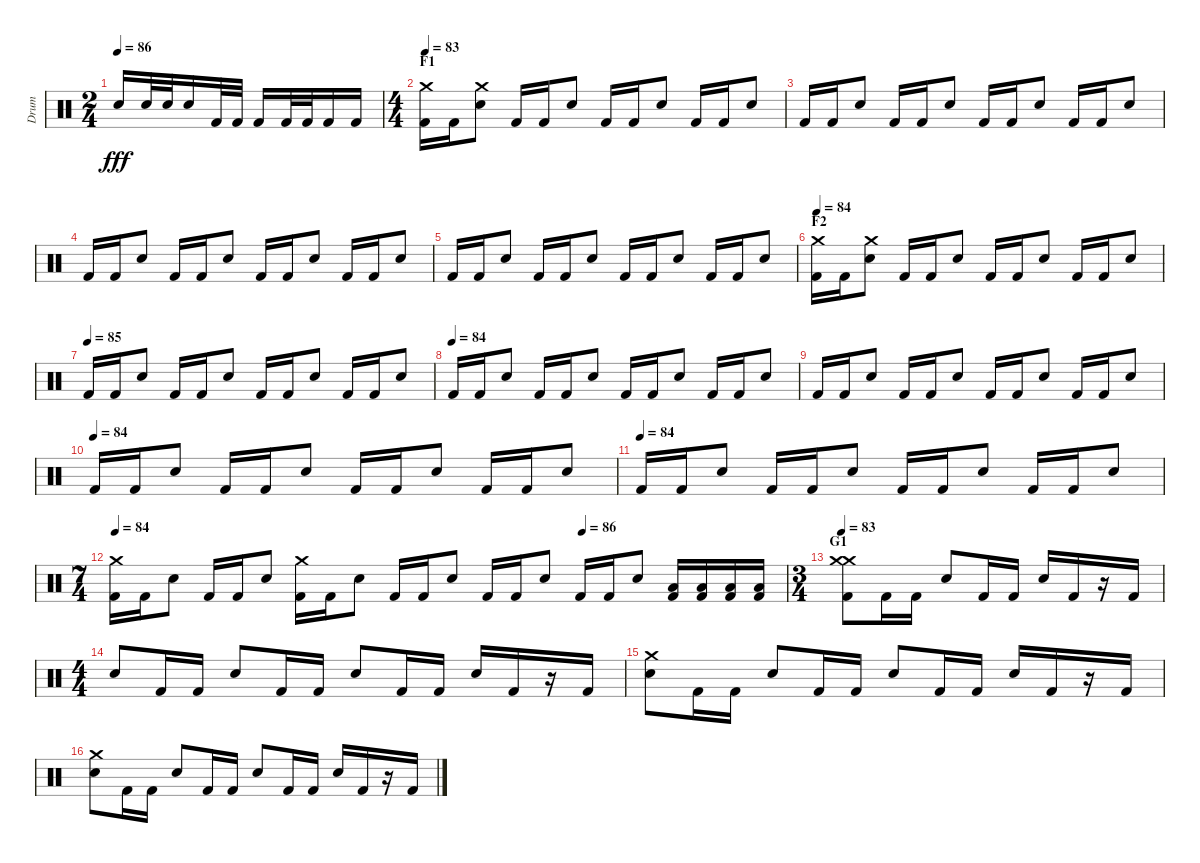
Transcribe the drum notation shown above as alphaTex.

\track ("Drum" "Drum") {instrument percussion}
\staff {score}
\articulation defaults
\ts (2 4)
\tempo 86
\clef neutral
\ks c "Electric Snare (hit)".16{dy fff} "Electric Snare (hit)".32 "Electric Snare (hit)".32 "Electric Snare (hit)".16 "Kick (hit) 2".32 "Kick (hit) 2".32 "Kick (hit) 2".16 "Kick (hit) 2".32 "Kick (hit) 2".32 "Kick (hit) 2".16 "Kick (hit) 2".16
|
\ts (4 4)
\section ("" "F1")
\tempo 83
("Kick (hit) 2" "Crash medium (hit)").16 "Kick (hit) 2".16 ("Electric Snare (hit)" "Crash medium (hit)").8 "Kick (hit) 2".16 "Kick (hit) 2".16 "Electric Snare (hit)".8 "Kick (hit) 2".16 "Kick (hit) 2".16 "Electric Snare (hit)".8 "Kick (hit) 2".16 "Kick (hit) 2".16 "Electric Snare (hit)".8 |
"Kick (hit) 2".16 "Kick (hit) 2".16 "Electric Snare (hit)".8 "Kick (hit) 2".16 "Kick (hit) 2".16 "Electric Snare (hit)".8 "Kick (hit) 2".16 "Kick (hit) 2".16 "Electric Snare (hit)".8 "Kick (hit) 2".16 "Kick (hit) 2".16 "Electric Snare (hit)".8 |
"Kick (hit) 2".16 "Kick (hit) 2".16 "Electric Snare (hit)".8 "Kick (hit) 2".16 "Kick (hit) 2".16 "Electric Snare (hit)".8 "Kick (hit) 2".16 "Kick (hit) 2".16 "Electric Snare (hit)".8 "Kick (hit) 2".16 "Kick (hit) 2".16 "Electric Snare (hit)".8 |
"Kick (hit) 2".16 "Kick (hit) 2".16 "Electric Snare (hit)".8 "Kick (hit) 2".16 "Kick (hit) 2".16 "Electric Snare (hit)".8 "Kick (hit) 2".16 "Kick (hit) 2".16 "Electric Snare (hit)".8 "Kick (hit) 2".16 "Kick (hit) 2".16 "Electric Snare (hit)".8 |
\section ("" "F2")
\tempo 84
("Kick (hit) 2" "Crash medium (hit)").16 "Kick (hit) 2".16 ("Electric Snare (hit)" "Crash medium (hit)").8 "Kick (hit) 2".16 "Kick (hit) 2".16 "Electric Snare (hit)".8 "Kick (hit) 2".16 "Kick (hit) 2".16 "Electric Snare (hit)".8 "Kick (hit) 2".16 "Kick (hit) 2".16 "Electric Snare (hit)".8 |
\tempo (85)
"Kick (hit) 2".16 "Kick (hit) 2".16 "Electric Snare (hit)".8 "Kick (hit) 2".16 "Kick (hit) 2".16 "Electric Snare (hit)".8 "Kick (hit) 2".16 "Kick (hit) 2".16 "Electric Snare (hit)".8 "Kick (hit) 2".16 "Kick (hit) 2".16 "Electric Snare (hit)".8 |
\tempo (84)
"Kick (hit) 2".16 "Kick (hit) 2".16 "Electric Snare (hit)".8 "Kick (hit) 2".16 "Kick (hit) 2".16 "Electric Snare (hit)".8 "Kick (hit) 2".16 "Kick (hit) 2".16 "Electric Snare (hit)".8 "Kick (hit) 2".16 "Kick (hit) 2".16 "Electric Snare (hit)".8 |
"Kick (hit) 2".16 "Kick (hit) 2".16 "Electric Snare (hit)".8 "Kick (hit) 2".16 "Kick (hit) 2".16 "Electric Snare (hit)".8 "Kick (hit) 2".16 "Kick (hit) 2".16 "Electric Snare (hit)".8 "Kick (hit) 2".16 "Kick (hit) 2".16 "Electric Snare (hit)".8 |
\tempo (84)
"Kick (hit) 2".16 "Kick (hit) 2".16 "Electric Snare (hit)".8 "Kick (hit) 2".16 "Kick (hit) 2".16 "Electric Snare (hit)".8 "Kick (hit) 2".16 "Kick (hit) 2".16 "Electric Snare (hit)".8 "Kick (hit) 2".16 "Kick (hit) 2".16 "Electric Snare (hit)".8 |
\tempo (84)
"Kick (hit) 2".16 "Kick (hit) 2".16 "Electric Snare (hit)".8 "Kick (hit) 2".16 "Kick (hit) 2".16 "Electric Snare (hit)".8 "Kick (hit) 2".16 "Kick (hit) 2".16 "Electric Snare (hit)".8 "Kick (hit) 2".16 "Kick (hit) 2".16 "Electric Snare (hit)".8 |
\ts (7 4)
\tempo 84
\tempo (86 0.6964285714285714)
("Kick (hit) 2" "Crash medium (hit)").16 "Kick (hit) 2".16 "Electric Snare (hit)".8 "Kick (hit) 2".16 "Kick (hit) 2".16 "Electric Snare (hit)".8 ("Kick (hit) 2" "Crash medium (hit)").16 "Kick (hit) 2".16 "Electric Snare (hit)".8 "Kick (hit) 2".16 "Kick (hit) 2".16 "Electric Snare (hit)".8 "Kick (hit) 2".16 "Kick (hit) 2".16 "Electric Snare (hit)".8 "Kick (hit) 2".16 "Kick (hit) 2".16 "Electric Snare (hit)".8 ("Kick (hit) 2" "Low Floor Tom (hit)").16 ("Kick (hit) 2" "Low Floor Tom (hit)").16 ("Kick (hit) 2" "Low Floor Tom (hit)").16 ("Kick (hit) 2" "Low Floor Tom (hit)").16 |
\ts (3 4)
\section ("" "G1")
\tempo 83
("Kick (hit) 2" "Crash medium (hit)" "Crash medium (hit)").8 "Kick (hit) 2".16 "Kick (hit) 2".16 "Electric Snare (hit)".8 "Kick (hit) 2".16 "Kick (hit) 2".16 "Electric Snare (hit)".16 "Kick (hit) 2".16 r.16 "Kick (hit) 2".16 |
\ts (4 4)
"Electric Snare (hit)".8 "Kick (hit) 2".16 "Kick (hit) 2".16 "Electric Snare (hit)".8 "Kick (hit) 2".16 "Kick (hit) 2".16 "Electric Snare (hit)".8 "Kick (hit) 2".16 "Kick (hit) 2".16 "Electric Snare (hit)".16 "Kick (hit) 2".16 r.16 "Kick (hit) 2".16 |
("Electric Snare (hit)" "Crash medium (hit)").8 "Kick (hit) 2".16 "Kick (hit) 2".16 "Electric Snare (hit)".8 "Kick (hit) 2".16 "Kick (hit) 2".16 "Electric Snare (hit)".8 "Kick (hit) 2".16 "Kick (hit) 2".16 "Electric Snare (hit)".16 "Kick (hit) 2".16 r.16 "Kick (hit) 2".16 |
("Electric Snare (hit)" "Crash medium (hit)").8 "Kick (hit) 2".16 "Kick (hit) 2".16 "Electric Snare (hit)".8 "Kick (hit) 2".16 "Kick (hit) 2".16 "Electric Snare (hit)".8 "Kick (hit) 2".16 "Kick (hit) 2".16 "Electric Snare (hit)".16 "Kick (hit) 2".16 r.16 "Kick (hit) 2".16
